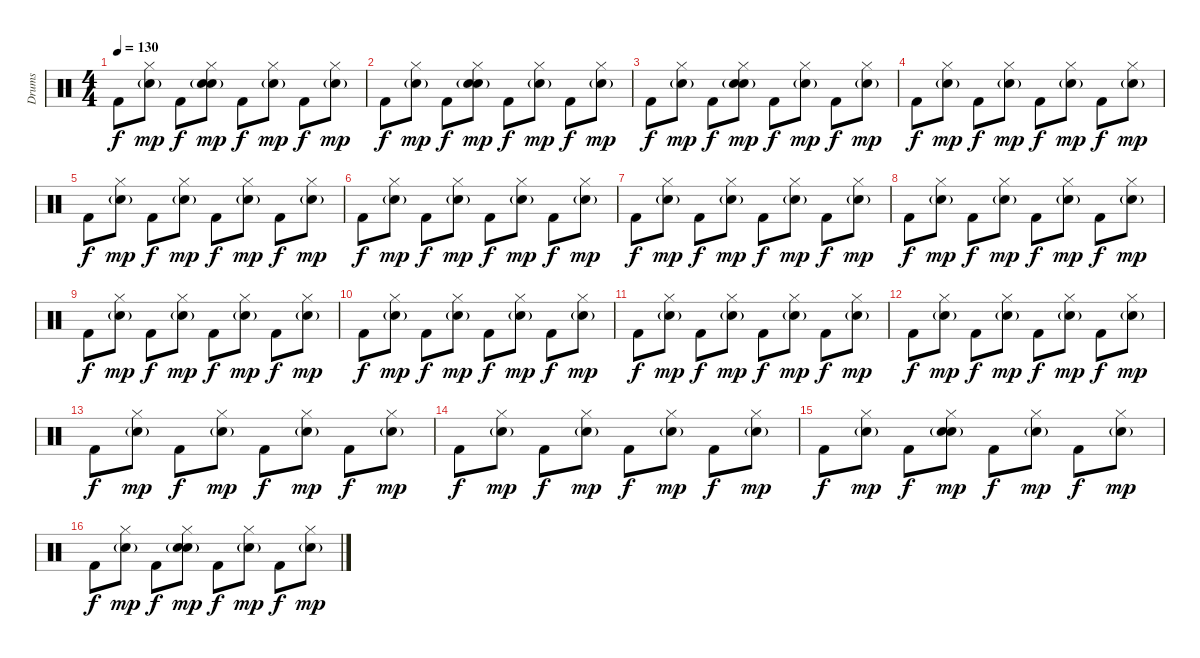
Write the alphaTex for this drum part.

\track ("Drums" "Drums") {instrument percussion}
\staff {score}
\articulation defaults
\ts (4 4)
\tempo 130
\clef neutral
\ks c "Kick (hit) 2".8{dy f}
("Hi-Hat (closed)" "Hand Clap (hit)"{g}).8{dy mp} "Kick (hit) 2".8{dy f} ("Hi-Hat (closed)" "Hand Clap (hit)"{g} "Electric Snare (hit)").8{dy mp} "Kick (hit) 2".8{dy f} ("Hi-Hat (closed)" "Hand Clap (hit)"{g}).8{dy mp} "Kick (hit) 2".8{dy f} ("Hi-Hat (closed)" "Hand Clap (hit)"{g}).8{dy mp} |
"Kick (hit) 2".8{dy f} ("Hi-Hat (closed)" "Hand Clap (hit)"{g}).8{dy mp} "Kick (hit) 2".8{dy f} ("Hi-Hat (closed)" "Hand Clap (hit)"{g} "Electric Snare (hit)").8{dy mp} "Kick (hit) 2".8{dy f} ("Hi-Hat (closed)" "Hand Clap (hit)"{g}).8{dy mp} "Kick (hit) 2".8{dy f} ("Hi-Hat (closed)" "Hand Clap (hit)"{g}).8{dy mp} |
"Kick (hit) 2".8{dy f} ("Hi-Hat (closed)" "Hand Clap (hit)"{g}).8{dy mp} "Kick (hit) 2".8{dy f} ("Hi-Hat (closed)" "Hand Clap (hit)"{g} "Electric Snare (hit)").8{dy mp} "Kick (hit) 2".8{dy f} ("Hi-Hat (closed)" "Hand Clap (hit)"{g}).8{dy mp} "Kick (hit) 2".8{dy f} ("Hi-Hat (closed)" "Hand Clap (hit)"{g}).8{dy mp} |
"Kick (hit) 2".8{dy f} ("Hi-Hat (closed)" "Hand Clap (hit)"{g}).8{dy mp} "Kick (hit) 2".8{dy f} ("Hi-Hat (closed)" "Hand Clap (hit)"{g}).8{dy mp} "Kick (hit) 2".8{dy f} ("Hi-Hat (closed)" "Hand Clap (hit)"{g}).8{dy mp} "Kick (hit) 2".8{dy f} ("Hi-Hat (closed)" "Hand Clap (hit)"{g}).8{dy mp} |
"Kick (hit) 2".8{dy f} ("Hi-Hat (closed)" "Hand Clap (hit)"{g}).8{dy mp} "Kick (hit) 2".8{dy f} ("Hi-Hat (closed)" "Hand Clap (hit)"{g}).8{dy mp} "Kick (hit) 2".8{dy f} ("Hi-Hat (closed)" "Hand Clap (hit)"{g}).8{dy mp} "Kick (hit) 2".8{dy f} ("Hi-Hat (closed)" "Hand Clap (hit)"{g}).8{dy mp} |
"Kick (hit) 2".8{dy f} ("Hi-Hat (closed)" "Hand Clap (hit)"{g}).8{dy mp} "Kick (hit) 2".8{dy f} ("Hi-Hat (closed)" "Hand Clap (hit)"{g}).8{dy mp} "Kick (hit) 2".8{dy f} ("Hi-Hat (closed)" "Hand Clap (hit)"{g}).8{dy mp} "Kick (hit) 2".8{dy f} ("Hi-Hat (closed)" "Hand Clap (hit)"{g}).8{dy mp} |
"Kick (hit) 2".8{dy f} ("Hi-Hat (closed)" "Hand Clap (hit)"{g}).8{dy mp} "Kick (hit) 2".8{dy f} ("Hi-Hat (closed)" "Hand Clap (hit)"{g}).8{dy mp} "Kick (hit) 2".8{dy f} ("Hi-Hat (closed)" "Hand Clap (hit)"{g}).8{dy mp} "Kick (hit) 2".8{dy f} ("Hi-Hat (closed)" "Hand Clap (hit)"{g}).8{dy mp} |
"Kick (hit) 2".8{dy f} ("Hi-Hat (closed)" "Hand Clap (hit)"{g}).8{dy mp} "Kick (hit) 2".8{dy f} ("Hi-Hat (closed)" "Hand Clap (hit)"{g}).8{dy mp} "Kick (hit) 2".8{dy f} ("Hi-Hat (closed)" "Hand Clap (hit)"{g}).8{dy mp} "Kick (hit) 2".8{dy f} ("Hi-Hat (closed)" "Hand Clap (hit)"{g}).8{dy mp} |
"Kick (hit) 2".8{dy f} ("Hi-Hat (closed)" "Hand Clap (hit)"{g}).8{dy mp} "Kick (hit) 2".8{dy f} ("Hi-Hat (closed)" "Hand Clap (hit)"{g}).8{dy mp} "Kick (hit) 2".8{dy f} ("Hi-Hat (closed)" "Hand Clap (hit)"{g}).8{dy mp} "Kick (hit) 2".8{dy f} ("Hi-Hat (closed)" "Hand Clap (hit)"{g}).8{dy mp} |
"Kick (hit) 2".8{dy f} ("Hi-Hat (closed)" "Hand Clap (hit)"{g}).8{dy mp} "Kick (hit) 2".8{dy f} ("Hi-Hat (closed)" "Hand Clap (hit)"{g}).8{dy mp} "Kick (hit) 2".8{dy f} ("Hi-Hat (closed)" "Hand Clap (hit)"{g}).8{dy mp} "Kick (hit) 2".8{dy f} ("Hi-Hat (closed)" "Hand Clap (hit)"{g}).8{dy mp} |
"Kick (hit) 2".8{dy f} ("Hi-Hat (closed)" "Hand Clap (hit)"{g}).8{dy mp} "Kick (hit) 2".8{dy f} ("Hi-Hat (closed)" "Hand Clap (hit)"{g}).8{dy mp} "Kick (hit) 2".8{dy f} ("Hi-Hat (closed)" "Hand Clap (hit)"{g}).8{dy mp} "Kick (hit) 2".8{dy f} ("Hi-Hat (closed)" "Hand Clap (hit)"{g}).8{dy mp} |
"Kick (hit) 2".8{dy f} ("Hi-Hat (closed)" "Hand Clap (hit)"{g}).8{dy mp} "Kick (hit) 2".8{dy f} ("Hi-Hat (closed)" "Hand Clap (hit)"{g}).8{dy mp} "Kick (hit) 2".8{dy f} ("Hi-Hat (closed)" "Hand Clap (hit)"{g}).8{dy mp} "Kick (hit) 2".8{dy f} ("Hi-Hat (closed)" "Hand Clap (hit)"{g}).8{dy mp} |
"Kick (hit) 2".8{dy f} ("Hi-Hat (closed)" "Hand Clap (hit)"{g}).8{dy mp} "Kick (hit) 2".8{dy f} ("Hi-Hat (closed)" "Hand Clap (hit)"{g}).8{dy mp} "Kick (hit) 2".8{dy f} ("Hi-Hat (closed)" "Hand Clap (hit)"{g}).8{dy mp} "Kick (hit) 2".8{dy f} ("Hi-Hat (closed)" "Hand Clap (hit)"{g}).8{dy mp} |
"Kick (hit) 2".8{dy f} ("Hi-Hat (closed)" "Hand Clap (hit)"{g}).8{dy mp} "Kick (hit) 2".8{dy f} ("Hi-Hat (closed)" "Hand Clap (hit)"{g}).8{dy mp} "Kick (hit) 2".8{dy f} ("Hi-Hat (closed)" "Hand Clap (hit)"{g}).8{dy mp} "Kick (hit) 2".8{dy f} ("Hi-Hat (closed)" "Hand Clap (hit)"{g}).8{dy mp} |
"Kick (hit) 2".8{dy f} ("Hi-Hat (closed)" "Hand Clap (hit)"{g}).8{dy mp} "Kick (hit) 2".8{dy f} ("Hi-Hat (closed)" "Hand Clap (hit)"{g} "Electric Snare (hit)").8{dy mp} "Kick (hit) 2".8{dy f} ("Hi-Hat (closed)" "Hand Clap (hit)"{g}).8{dy mp} "Kick (hit) 2".8{dy f} ("Hi-Hat (closed)" "Hand Clap (hit)"{g}).8{dy mp} |
"Kick (hit) 2".8{dy f} ("Hi-Hat (closed)" "Hand Clap (hit)"{g}).8{dy mp} "Kick (hit) 2".8{dy f} ("Hi-Hat (closed)" "Hand Clap (hit)"{g} "Electric Snare (hit)").8{dy mp} "Kick (hit) 2".8{dy f} ("Hi-Hat (closed)" "Hand Clap (hit)"{g}).8{dy mp} "Kick (hit) 2".8{dy f} ("Hi-Hat (closed)" "Hand Clap (hit)"{g}).8{dy mp}
